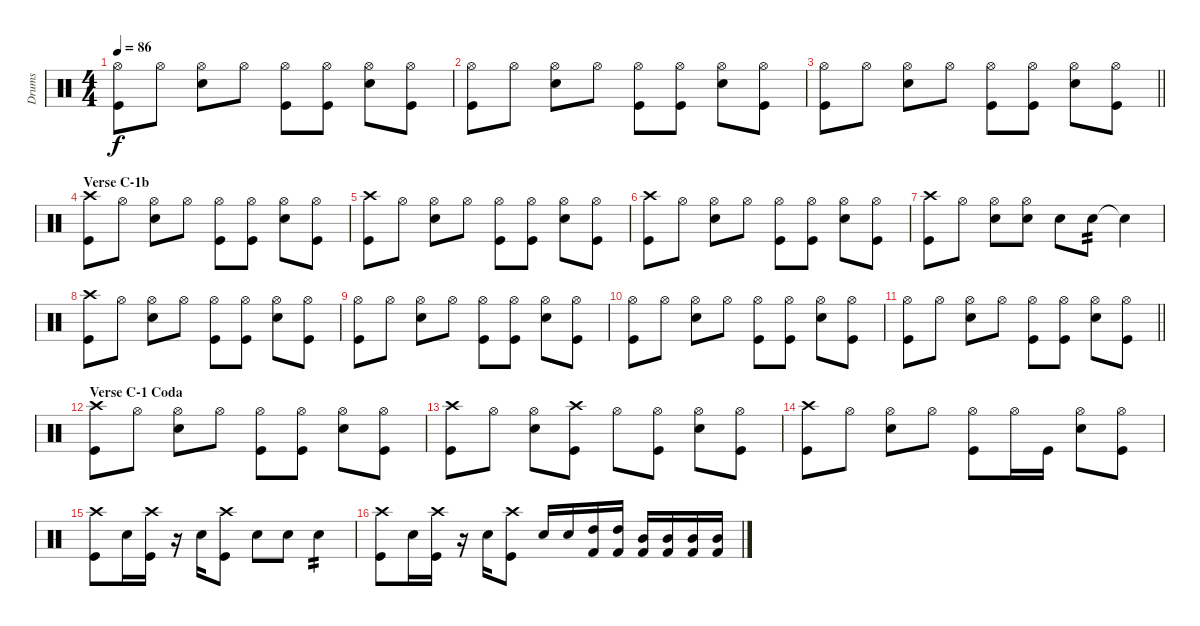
\track ("Drums" "Drums") {instrument percussion}
\staff {score}
\articulation defaults
\ts (4 4)
\tempo 86
\clef neutral
\ks c
("Hi-Hat (open)" "Kick (hit)").8{dy f} "Hi-Hat (open)".8 ("Hi-Hat (open)" "Snare (hit) 2").8 "Hi-Hat (open)".8 ("Hi-Hat (open)" "Kick (hit)").8 ("Hi-Hat (open)" "Kick (hit)").8 ("Hi-Hat (open)" "Snare (hit) 2").8 ("Hi-Hat (open)" "Kick (hit)").8 |
("Hi-Hat (open)" "Kick (hit)").8 "Hi-Hat (open)".8 ("Hi-Hat (open)" "Snare (hit) 2").8 "Hi-Hat (open)".8 ("Hi-Hat (open)" "Kick (hit)").8 ("Hi-Hat (open)" "Kick (hit)").8 ("Hi-Hat (open)" "Snare (hit) 2").8 ("Hi-Hat (open)" "Kick (hit)").8 |
\barLineRight lightlight
("Hi-Hat (open)" "Kick (hit)").8 "Hi-Hat (open)".8 ("Hi-Hat (open)" "Snare (hit) 2").8 "Hi-Hat (open)".8 ("Hi-Hat (open)" "Kick (hit)").8 ("Hi-Hat (open)" "Kick (hit)").8 ("Hi-Hat (open)" "Snare (hit) 2").8 ("Hi-Hat (open)" "Kick (hit)").8 |
\section ("" "Verse C-1b")
("Crash high (hit)" "Kick (hit)").8 "Hi-Hat (open)".8 ("Hi-Hat (open)" "Snare (hit) 2").8 "Hi-Hat (open)".8 ("Hi-Hat (open)" "Kick (hit)").8 ("Hi-Hat (open)" "Kick (hit)").8 ("Hi-Hat (open)" "Snare (hit) 2").8 ("Hi-Hat (open)" "Kick (hit)").8 |
("Crash high (hit)" "Kick (hit)").8 "Hi-Hat (open)".8 ("Hi-Hat (open)" "Snare (hit) 2").8 "Hi-Hat (open)".8 ("Hi-Hat (open)" "Kick (hit)").8 ("Hi-Hat (open)" "Kick (hit)").8 ("Hi-Hat (open)" "Snare (hit) 2").8 ("Hi-Hat (open)" "Kick (hit)").8 |
("Crash high (hit)" "Kick (hit)").8 "Hi-Hat (open)".8 ("Hi-Hat (open)" "Snare (hit) 2").8 "Hi-Hat (open)".8 ("Hi-Hat (open)" "Kick (hit)").8 ("Hi-Hat (open)" "Kick (hit)").8 ("Hi-Hat (open)" "Snare (hit) 2").8 ("Hi-Hat (open)" "Kick (hit)").8 |
("Crash high (hit)" "Kick (hit)").8 "Hi-Hat (open)".8 ("Hi-Hat (open)" "Snare (hit) 2").8 ("Hi-Hat (open)" "Snare (hit) 2").8 "Snare (hit) 2".8 "Snare (hit) 2".8{tp 2} "Snare (hit) 2"{t}.4 |
("Crash high (hit)" "Kick (hit)").8 "Hi-Hat (open)".8 ("Hi-Hat (open)" "Snare (hit) 2").8 "Hi-Hat (open)".8 ("Hi-Hat (open)" "Kick (hit)").8 ("Hi-Hat (open)" "Kick (hit)").8 ("Hi-Hat (open)" "Snare (hit) 2").8 ("Hi-Hat (open)" "Kick (hit)").8 |
("Hi-Hat (open)" "Kick (hit)").8 "Hi-Hat (open)".8 ("Hi-Hat (open)" "Snare (hit) 2").8 "Hi-Hat (open)".8 ("Hi-Hat (open)" "Kick (hit)").8 ("Hi-Hat (open)" "Kick (hit)").8 ("Hi-Hat (open)" "Snare (hit) 2").8 ("Hi-Hat (open)" "Kick (hit)").8 |
("Hi-Hat (open)" "Kick (hit)").8 "Hi-Hat (open)".8 ("Hi-Hat (open)" "Snare (hit) 2").8 "Hi-Hat (open)".8 ("Hi-Hat (open)" "Kick (hit)").8 ("Hi-Hat (open)" "Kick (hit)").8 ("Hi-Hat (open)" "Snare (hit) 2").8 ("Hi-Hat (open)" "Kick (hit)").8 |
\barLineRight lightlight
("Hi-Hat (open)" "Kick (hit)").8 "Hi-Hat (open)".8 ("Hi-Hat (open)" "Snare (hit) 2").8 "Hi-Hat (open)".8 ("Hi-Hat (open)" "Kick (hit)").8 ("Hi-Hat (open)" "Kick (hit)").8 ("Hi-Hat (open)" "Snare (hit) 2").8 ("Hi-Hat (open)" "Kick (hit)").8 |
\section ("" "Verse C-1 Coda")
("Crash high (hit)" "Kick (hit)").8 "Hi-Hat (open)".8 ("Hi-Hat (open)" "Snare (hit) 2").8 "Hi-Hat (open)".8 ("Hi-Hat (open)" "Kick (hit)").8 ("Hi-Hat (open)" "Kick (hit)").8 ("Hi-Hat (open)" "Snare (hit) 2").8 ("Hi-Hat (open)" "Kick (hit)").8 |
("Crash high (hit)" "Kick (hit)").8 "Hi-Hat (open)".8 ("Hi-Hat (open)" "Snare (hit) 2").8 ("Crash high (hit)" "Kick (hit)").8 "Hi-Hat (open)".8 ("Hi-Hat (open)" "Kick (hit)").8 ("Hi-Hat (open)" "Snare (hit) 2").8 ("Hi-Hat (open)" "Kick (hit)").8 |
("Crash high (hit)" "Kick (hit)").8 "Hi-Hat (open)".8 ("Hi-Hat (open)" "Snare (hit) 2").8 "Hi-Hat (open)".8 ("Hi-Hat (open)" "Kick (hit)").8 "Hi-Hat (open)".16 "Kick (hit)".16 ("Hi-Hat (open)" "Snare (hit) 2").8 ("Hi-Hat (open)" "Kick (hit)").8 |
("Crash high (hit)" "Kick (hit)").8 "Snare (hit) 2".16 ("Crash high (hit)" "Kick (hit)").16 r.16 "Snare (hit) 2".16 ("Crash high (hit)" "Kick (hit)").8 "Snare (hit) 2".8 "Snare (hit) 2".8 "Snare (hit) 2".4{tp 2} |
("Crash high (hit)" "Kick (hit)").8 "Snare (hit) 2".16 ("Crash high (hit)" "Kick (hit)").16 r.16 "Snare (hit) 2".16 ("Crash high (hit)" "Kick (hit)").8 "Snare (hit) 2".16 "Snare (hit) 2".16 ("High Tom (hit)" "Kick (hit) 2").16 ("High Tom (hit)" "Kick (hit) 2").16 ("Mid Tom (hit)" "Kick (hit) 2").16 ("Mid Tom (hit)" "Kick (hit) 2").16 ("Mid Tom (hit)" "Kick (hit) 2").16 ("Mid Tom (hit)" "Kick (hit) 2").16
